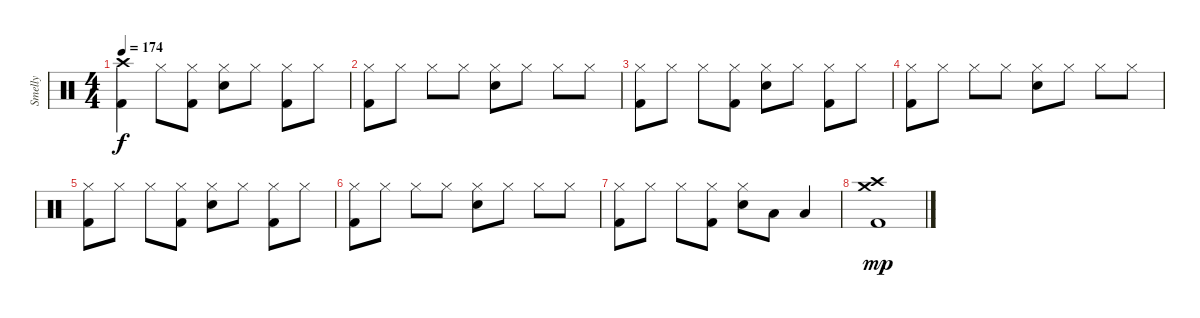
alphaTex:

\track ("Smelly" "Smelly") {instrument percussion}
\staff {score}
\articulation defaults
\ts (4 4)
\tempo 174
\clef neutral
\ks c
("Crash high (hit)" "Kick (hit) 2").4{dy f} "Hi-Hat (closed)".8 ("Hi-Hat (closed)" "Kick (hit) 2").8 ("Hi-Hat (closed)" "Electric Snare (hit)").8 "Hi-Hat (closed)".8 ("Hi-Hat (closed)" "Kick (hit) 2").8 "Hi-Hat (closed)".8 |
("Hi-Hat (closed)" "Kick (hit) 2").8 "Hi-Hat (closed)".8 "Hi-Hat (closed)".8 "Hi-Hat (closed)".8 ("Hi-Hat (closed)" "Electric Snare (hit)").8 "Hi-Hat (closed)".8 "Hi-Hat (closed)".8 "Hi-Hat (closed)".8 |
("Hi-Hat (closed)" "Kick (hit) 2").8 "Hi-Hat (closed)".8 "Hi-Hat (closed)".8 ("Hi-Hat (closed)" "Kick (hit) 2").8 ("Hi-Hat (closed)" "Electric Snare (hit)").8 "Hi-Hat (closed)".8 ("Hi-Hat (closed)" "Kick (hit) 2").8 "Hi-Hat (closed)".8 |
("Hi-Hat (closed)" "Kick (hit) 2").8 "Hi-Hat (closed)".8 "Hi-Hat (closed)".8 "Hi-Hat (closed)".8 ("Hi-Hat (closed)" "Electric Snare (hit)").8 "Hi-Hat (closed)".8 "Hi-Hat (closed)".8 "Hi-Hat (closed)".8 |
("Hi-Hat (closed)" "Kick (hit) 2").8 "Hi-Hat (closed)".8 "Hi-Hat (closed)".8 ("Hi-Hat (closed)" "Kick (hit) 2").8 ("Hi-Hat (closed)" "Electric Snare (hit)").8 "Hi-Hat (closed)".8 ("Hi-Hat (closed)" "Kick (hit) 2").8 "Hi-Hat (closed)".8 |
("Hi-Hat (closed)" "Kick (hit) 2").8 "Hi-Hat (closed)".8 "Hi-Hat (closed)".8 "Hi-Hat (closed)".8 ("Hi-Hat (closed)" "Electric Snare (hit)").8 "Hi-Hat (closed)".8 "Hi-Hat (closed)".8 "Hi-Hat (closed)".8 |
("Hi-Hat (closed)" "Kick (hit) 2").8 "Hi-Hat (closed)".8 "Hi-Hat (closed)".8 ("Hi-Hat (closed)" "Kick (hit) 2").8 ("Hi-Hat (closed)" "Electric Snare (hit)").8 "Low Tom (hit)".8 "Low Floor Tom (hit)".4 |
("Crash medium (hit)" "Crash high (hit)" "Kick (hit) 2").1{dy mp}
